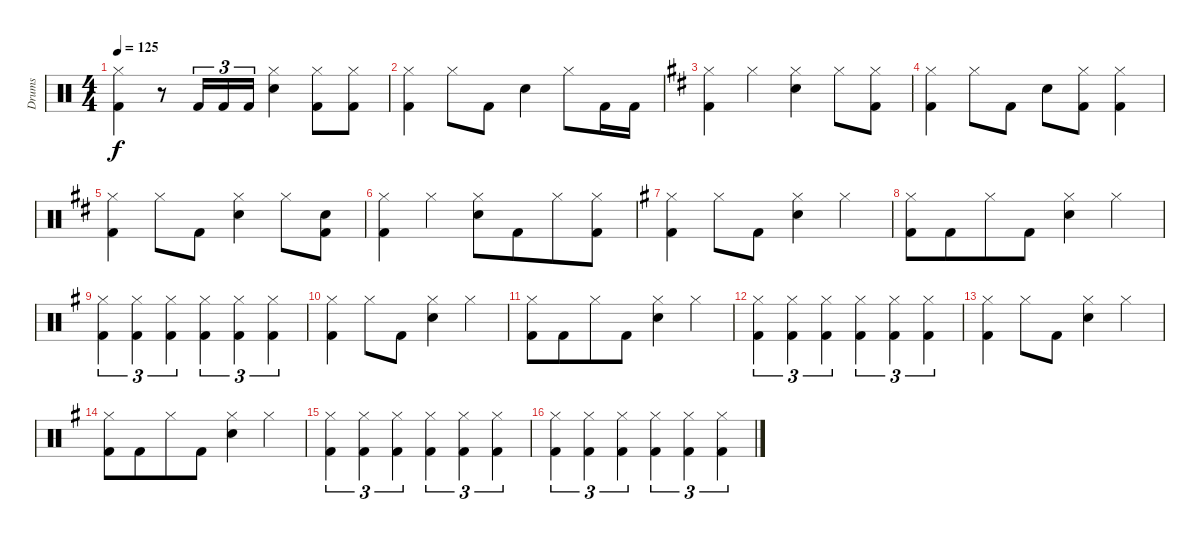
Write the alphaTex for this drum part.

\track ("Drums" "Drums") {instrument percussion}
\staff {score}
\articulation defaults
\ts (4 4)
\tempo 125
\clef neutral
\ks aminor
("Hi-Hat (closed)" "Kick (hit) 2").4{dy f} r.8 "Kick (hit) 2".16{tu (3 2)} "Kick (hit) 2".16{tu (3 2)} "Kick (hit) 2".16{tu (3 2)} ("Hi-Hat (closed)" "Electric Snare (hit)").4 ("Hi-Hat (closed)" "Kick (hit) 2").8 ("Hi-Hat (closed)" "Kick (hit) 2").8 |
("Hi-Hat (closed)" "Kick (hit) 2").4 "Hi-Hat (closed)".8 "Kick (hit) 2".8 "Electric Snare (hit)".4 "Hi-Hat (closed)".8 "Kick (hit) 2".16 "Kick (hit) 2".16 |
\ks bminor
("Hi-Hat (closed)" "Kick (hit) 2").4 "Hi-Hat (closed)".4 ("Hi-Hat (closed)" "Electric Snare (hit)").4 "Hi-Hat (closed)".8 ("Hi-Hat (closed)" "Kick (hit) 2").8 |
("Hi-Hat (closed)" "Kick (hit) 2").4 "Hi-Hat (closed)".8 "Kick (hit) 2".8 "Electric Snare (hit)".8 ("Hi-Hat (closed)" "Kick (hit) 2").8 ("Hi-Hat (closed)" "Kick (hit) 2").4 |
("Hi-Hat (closed)" "Kick (hit) 2").4 "Hi-Hat (closed)".8 "Kick (hit) 2".8 ("Hi-Hat (closed)" "Electric Snare (hit)").4 "Hi-Hat (closed)".8 ("Snare (hit)" "Kick (hit) 2").8 |
("Hi-Hat (closed)" "Kick (hit) 2").4 "Hi-Hat (closed)".4 ("Hi-Hat (closed)" "Electric Snare (hit)").8 "Kick (hit) 2".8{beam merge} "Hi-Hat (closed)".8 ("Hi-Hat (closed)" "Kick (hit) 2").8 |
\ks eminor
("Hi-Hat (closed)" "Kick (hit) 2").4 "Hi-Hat (closed)".8 "Kick (hit) 2".8 ("Hi-Hat (closed)" "Electric Snare (hit)").4 "Hi-Hat (closed)".4 |
("Hi-Hat (closed)" "Kick (hit) 2").8 "Kick (hit) 2".8{beam merge} "Hi-Hat (closed)".8 "Kick (hit) 2".8 ("Hi-Hat (closed)" "Electric Snare (hit)").4 "Hi-Hat (closed)".4 |
("Hi-Hat (closed)" "Kick (hit) 2").4{tu (3 2)} ("Hi-Hat (closed)" "Kick (hit) 2").4{tu (3 2)} ("Hi-Hat (closed)" "Kick (hit) 2").4{tu (3 2)} ("Hi-Hat (closed)" "Kick (hit) 2").4{tu (3 2)} ("Hi-Hat (closed)" "Kick (hit) 2").4{tu (3 2)} ("Hi-Hat (closed)" "Kick (hit) 2").4{tu (3 2)} |
("Hi-Hat (closed)" "Kick (hit) 2").4 "Hi-Hat (closed)".8 "Kick (hit) 2".8 ("Hi-Hat (closed)" "Electric Snare (hit)").4 "Hi-Hat (closed)".4 |
("Hi-Hat (closed)" "Kick (hit) 2").8 "Kick (hit) 2".8{beam merge} "Hi-Hat (closed)".8 "Kick (hit) 2".8 ("Hi-Hat (closed)" "Electric Snare (hit)").4 "Hi-Hat (closed)".4 |
("Hi-Hat (closed)" "Kick (hit) 2").4{tu (3 2)} ("Hi-Hat (closed)" "Kick (hit) 2").4{tu (3 2)} ("Hi-Hat (closed)" "Kick (hit) 2").4{tu (3 2)} ("Hi-Hat (closed)" "Kick (hit) 2").4{tu (3 2)} ("Hi-Hat (closed)" "Kick (hit) 2").4{tu (3 2)} ("Hi-Hat (closed)" "Kick (hit) 2").4{tu (3 2)} |
("Hi-Hat (closed)" "Kick (hit) 2").4 "Hi-Hat (closed)".8 "Kick (hit) 2".8 ("Hi-Hat (closed)" "Electric Snare (hit)").4 "Hi-Hat (closed)".4 |
("Hi-Hat (closed)" "Kick (hit) 2").8 "Kick (hit) 2".8{beam merge} "Hi-Hat (closed)".8 "Kick (hit) 2".8 ("Hi-Hat (closed)" "Electric Snare (hit)").4 "Hi-Hat (closed)".4 |
("Hi-Hat (closed)" "Kick (hit) 2").4{tu (3 2)} ("Hi-Hat (closed)" "Kick (hit) 2").4{tu (3 2)} ("Hi-Hat (closed)" "Kick (hit) 2").4{tu (3 2)} ("Hi-Hat (closed)" "Kick (hit) 2").4{tu (3 2)} ("Hi-Hat (closed)" "Kick (hit) 2").4{tu (3 2)} ("Hi-Hat (closed)" "Kick (hit) 2").4{tu (3 2)} |
("Hi-Hat (closed)" "Kick (hit) 2").4{tu (3 2)} ("Hi-Hat (closed)" "Kick (hit) 2").4{tu (3 2)} ("Hi-Hat (closed)" "Kick (hit) 2").4{tu (3 2)} ("Hi-Hat (closed)" "Kick (hit) 2").4{tu (3 2)} ("Hi-Hat (closed)" "Kick (hit) 2").4{tu (3 2)} ("Hi-Hat (closed)" "Kick (hit) 2").4{tu (3 2)}
